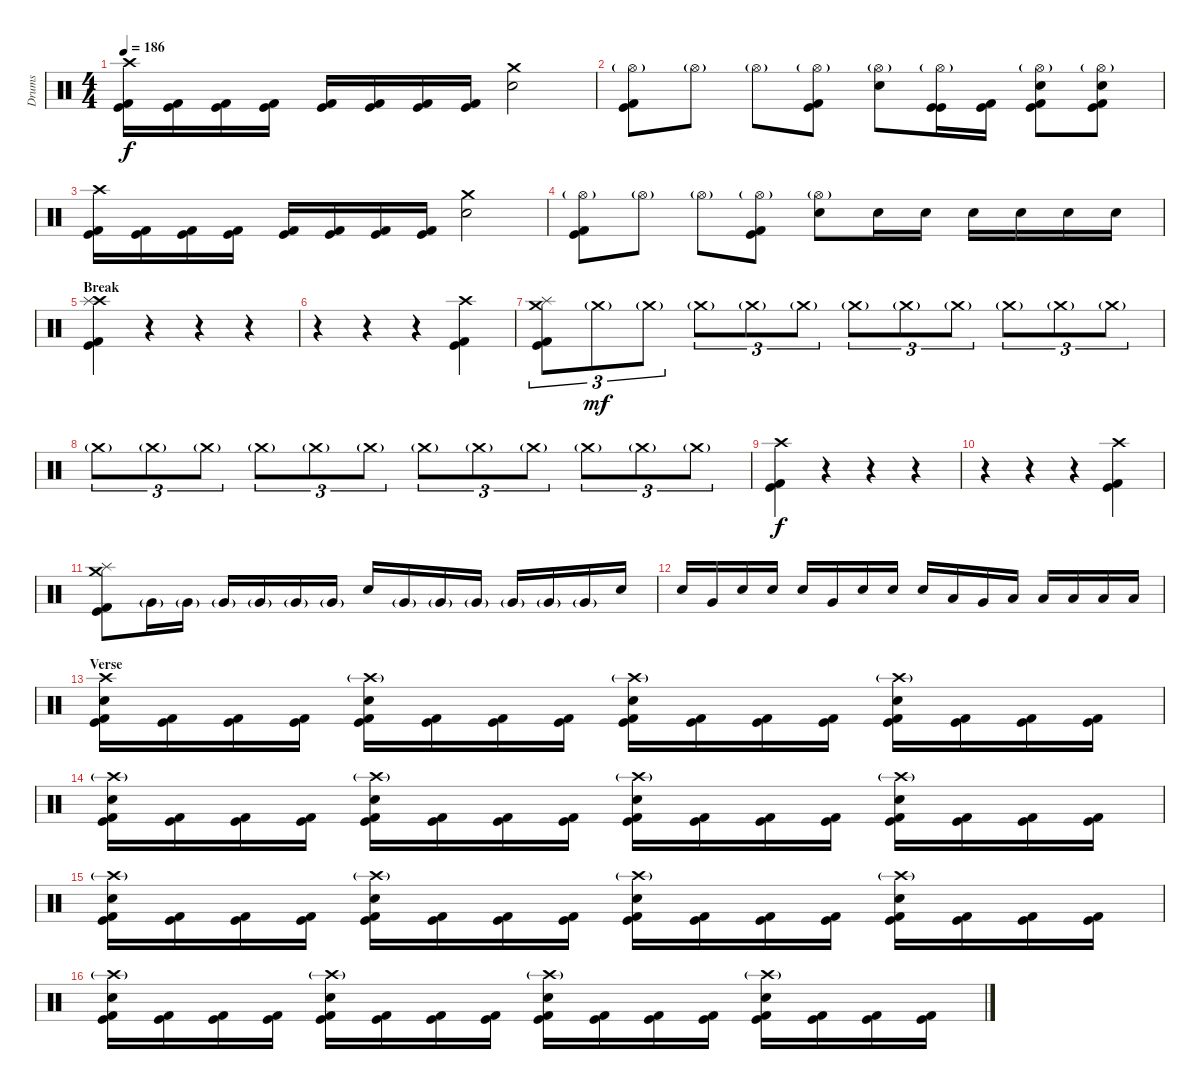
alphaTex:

\track ("Drums" "Drums") {instrument percussion}
\staff {score}
\articulation defaults
\ts (4 4)
\tempo 186
\clef neutral
\ks c
("Crash high (hit)" "Kick (hit)" "Kick (hit) 2").16{dy f} ("Kick (hit)" "Kick (hit) 2").16 ("Kick (hit)" "Kick (hit) 2").16 ("Kick (hit)" "Kick (hit) 2").16 ("Kick (hit)" "Kick (hit) 2").16 ("Kick (hit)" "Kick (hit) 2").16 ("Kick (hit)" "Kick (hit) 2").16 ("Kick (hit)" "Kick (hit) 2").16 ("Crash medium (hit)" "Electric Snare (hit)").2 |
("Hi-Hat (open)"{g} "Kick (hit)" "Kick (hit) 2").8 "Hi-Hat (open)"{g}.8 "Hi-Hat (open)"{g}.8 ("Hi-Hat (open)"{g} "Kick (hit)" "Kick (hit) 2").8 ("Hi-Hat (open)"{g} "Electric Snare (hit)").8 ("Hi-Hat (open)"{g} "Kick (hit)" "Kick (hit)").16 ("Kick (hit)" "Kick (hit) 2").16 ("Hi-Hat (open)"{g} "Electric Snare (hit)" "Kick (hit)" "Kick (hit) 2").8 ("Hi-Hat (open)"{g} "Electric Snare (hit)" "Kick (hit)" "Kick (hit) 2").8 |
("Crash high (hit)" "Kick (hit)" "Kick (hit) 2").16 ("Kick (hit)" "Kick (hit) 2").16 ("Kick (hit)" "Kick (hit) 2").16 ("Kick (hit)" "Kick (hit) 2").16 ("Kick (hit)" "Kick (hit) 2").16 ("Kick (hit)" "Kick (hit) 2").16 ("Kick (hit)" "Kick (hit) 2").16 ("Kick (hit)" "Kick (hit) 2").16 ("Crash medium (hit)" "Electric Snare (hit)").2 |
("Hi-Hat (open)"{g} "Kick (hit)" "Kick (hit) 2").8 "Hi-Hat (open)"{g}.8 "Hi-Hat (open)"{g}.8 ("Hi-Hat (open)"{g} "Kick (hit)" "Kick (hit) 2").8 ("Hi-Hat (open)"{g} "Electric Snare (hit)").8 "Electric Snare (hit)".16 "Electric Snare (hit)".16 "Electric Snare (hit)".16 "Electric Snare (hit)".16 "Electric Snare (hit)".16 "Electric Snare (hit)".16 |
\section ("" "Break")
("Crash high (hit)" "Splash (hit)" "Kick (hit)" "Kick (hit) 2").4 r.4 r.4 r.4 |
r.4 r.4 r.4 ("Crash high (hit)" "Kick (hit)" "Kick (hit) 2").4 |
("Crash medium (hit)" "Splash (hit)" "Kick (hit)" "Kick (hit) 2").8{tu (3 2)} "Crash medium (hit)"{g}.8{tu (3 2) dy mf} "Crash medium (hit)"{g}.8{tu (3 2)} "Crash medium (hit)"{g}.8{tu (3 2)} "Crash medium (hit)"{g}.8{tu (3 2)} "Crash medium (hit)"{g}.8{tu (3 2)} "Crash medium (hit)"{g}.8{tu (3 2)} "Crash medium (hit)"{g}.8{tu (3 2)} "Crash medium (hit)"{g}.8{tu (3 2)} "Crash medium (hit)"{g}.8{tu (3 2)} "Crash medium (hit)"{g}.8{tu (3 2)} "Crash medium (hit)"{g}.8{tu (3 2)} |
"Crash medium (hit)"{g}.8{tu (3 2)} "Crash medium (hit)"{g}.8{tu (3 2)} "Crash medium (hit)"{g}.8{tu (3 2)} "Crash medium (hit)"{g}.8{tu (3 2)} "Crash medium (hit)"{g}.8{tu (3 2)} "Crash medium (hit)"{g}.8{tu (3 2)} "Crash medium (hit)"{g}.8{tu (3 2)} "Crash medium (hit)"{g}.8{tu (3 2)} "Crash medium (hit)"{g}.8{tu (3 2)} "Crash medium (hit)"{g}.8{tu (3 2)} "Crash medium (hit)"{g}.8{tu (3 2)} "Crash medium (hit)"{g}.8{tu (3 2)} |
("Crash high (hit)" "Kick (hit)" "Kick (hit) 2").4{dy f} r.4 r.4 r.4 |
r.4 r.4 r.4 ("Crash high (hit)" "Kick (hit)" "Kick (hit) 2").4 |
("Crash medium (hit)" "Splash (hit)" "Kick (hit)" "Kick (hit) 2").8 "Very Low Tom (hit)"{g}.16 "Very Low Tom (hit)"{g}.16 "Very Low Tom (hit)"{g}.16 "Very Low Tom (hit)"{g}.16 "Very Low Tom (hit)"{g}.16 "Very Low Tom (hit)"{g}.16 "Electric Snare (hit)".16 "Very Low Tom (hit)"{g}.16 "Very Low Tom (hit)"{g}.16 "Very Low Tom (hit)"{g}.16 "Very Low Tom (hit)"{g}.16 "Very Low Tom (hit)"{g}.16 "Very Low Tom (hit)"{g}.16 "Electric Snare (hit)".16 |
"Electric Snare (hit)".16 "Very Low Tom (hit)".16 "Electric Snare (hit)".16 "Electric Snare (hit)".16 "Electric Snare (hit)".16 "Very Low Tom (hit)".16 "Electric Snare (hit)".16 "Electric Snare (hit)".16 "Electric Snare (hit)".16 "Low Tom (hit)".16 "Very Low Tom (hit)".16 "Low Floor Tom (hit)".16 "Low Tom (hit)".16 "Low Tom (hit)".16 "Low Floor Tom (hit)".16 "Low Floor Tom (hit)".16 |
\section ("" "Verse")
("Crash high (hit)" "Electric Snare (hit)" "Kick (hit)" "Kick (hit) 2").16 ("Kick (hit)" "Kick (hit) 2").16 ("Kick (hit)" "Kick (hit) 2").16 ("Kick (hit)" "Kick (hit) 2").16 ("Crash high (hit)"{g} "Electric Snare (hit)" "Kick (hit)" "Kick (hit) 2").16 ("Kick (hit)" "Kick (hit) 2").16 ("Kick (hit)" "Kick (hit) 2").16 ("Kick (hit)" "Kick (hit) 2").16 ("Crash high (hit)"{g} "Electric Snare (hit)" "Kick (hit)" "Kick (hit) 2").16 ("Kick (hit)" "Kick (hit) 2").16 ("Kick (hit)" "Kick (hit) 2").16 ("Kick (hit)" "Kick (hit) 2").16 ("Crash high (hit)"{g} "Electric Snare (hit)" "Kick (hit)" "Kick (hit) 2").16 ("Kick (hit)" "Kick (hit) 2").16 ("Kick (hit)" "Kick (hit) 2").16 ("Kick (hit)" "Kick (hit) 2").16 |
("Crash high (hit)"{g} "Electric Snare (hit)" "Kick (hit)" "Kick (hit) 2").16 ("Kick (hit)" "Kick (hit) 2").16 ("Kick (hit)" "Kick (hit) 2").16 ("Kick (hit)" "Kick (hit) 2").16 ("Crash high (hit)"{g} "Electric Snare (hit)" "Kick (hit)" "Kick (hit) 2").16 ("Kick (hit)" "Kick (hit) 2").16 ("Kick (hit)" "Kick (hit) 2").16 ("Kick (hit)" "Kick (hit) 2").16 ("Crash high (hit)"{g} "Electric Snare (hit)" "Kick (hit)" "Kick (hit) 2").16 ("Kick (hit)" "Kick (hit) 2").16 ("Kick (hit)" "Kick (hit) 2").16 ("Kick (hit)" "Kick (hit) 2").16 ("Crash high (hit)"{g} "Electric Snare (hit)" "Kick (hit)" "Kick (hit) 2").16 ("Kick (hit)" "Kick (hit) 2").16 ("Kick (hit)" "Kick (hit) 2").16 ("Kick (hit)" "Kick (hit) 2").16 |
("Crash high (hit)"{g} "Electric Snare (hit)" "Kick (hit)" "Kick (hit) 2").16 ("Kick (hit)" "Kick (hit) 2").16 ("Kick (hit)" "Kick (hit) 2").16 ("Kick (hit)" "Kick (hit) 2").16 ("Crash high (hit)"{g} "Electric Snare (hit)" "Kick (hit)" "Kick (hit) 2").16 ("Kick (hit)" "Kick (hit) 2").16 ("Kick (hit)" "Kick (hit) 2").16 ("Kick (hit)" "Kick (hit) 2").16 ("Crash high (hit)"{g} "Electric Snare (hit)" "Kick (hit)" "Kick (hit) 2").16 ("Kick (hit)" "Kick (hit) 2").16 ("Kick (hit)" "Kick (hit) 2").16 ("Kick (hit)" "Kick (hit) 2").16 ("Crash high (hit)"{g} "Electric Snare (hit)" "Kick (hit)" "Kick (hit) 2").16 ("Kick (hit)" "Kick (hit) 2").16 ("Kick (hit)" "Kick (hit) 2").16 ("Kick (hit)" "Kick (hit) 2").16 |
("Crash high (hit)"{g} "Electric Snare (hit)" "Kick (hit)" "Kick (hit) 2").16 ("Kick (hit)" "Kick (hit) 2").16 ("Kick (hit)" "Kick (hit) 2").16 ("Kick (hit)" "Kick (hit) 2").16 ("Crash high (hit)"{g} "Electric Snare (hit)" "Kick (hit)" "Kick (hit) 2").16 ("Kick (hit)" "Kick (hit) 2").16 ("Kick (hit)" "Kick (hit) 2").16 ("Kick (hit)" "Kick (hit) 2").16 ("Crash high (hit)"{g} "Electric Snare (hit)" "Kick (hit)" "Kick (hit) 2").16 ("Kick (hit)" "Kick (hit) 2").16 ("Kick (hit)" "Kick (hit) 2").16 ("Kick (hit)" "Kick (hit) 2").16 ("Crash high (hit)"{g} "Electric Snare (hit)" "Kick (hit)" "Kick (hit) 2").16 ("Kick (hit)" "Kick (hit) 2").16 ("Kick (hit)" "Kick (hit) 2").16 ("Kick (hit)" "Kick (hit) 2").16
